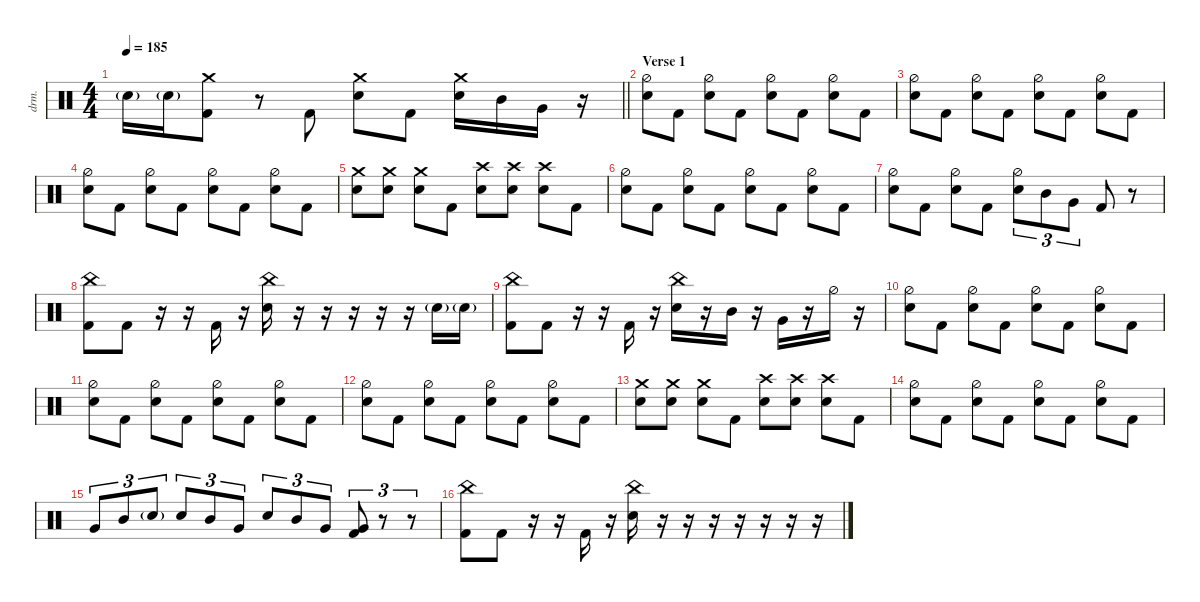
\defaultSystemsLayout 4
\hideDynamics
\bracketExtendMode nobrackets
\track ("Drums - Šimon" "drm.") {instrument percussion}
\staff {score}
\articulation defaults
\ts (4 4)
\tempo 185
\clef neutral
\barLineRight lightlight
\ks c "Snare (hit) 2"{g}.16{dy ff beam Down} "Snare (hit) 2"{g}.16{beam Down}
("Kick (hit) 2" "Crash medium (hit)").8{beam Down} r.8{beam Down} "Kick (hit) 2".8{beam Up} ("Snare (hit) 2" "Crash medium (hit)").8{beam Down} "Kick (hit) 2".8{beam Down} ("Snare (hit) 2" "Crash medium (hit)").16{beam Down} "Mid Tom (hit)".16{beam Down} "Very Low Tom (hit)".16{beam Down} r.16{beam Down} |
\section ("" "Verse 1")
("Snare (hit) 2" "Hi-Hat (half)").8{beam Down} "Kick (hit) 2".8{beam Down} ("Snare (hit) 2" "Hi-Hat (half)").8{beam Down} "Kick (hit) 2".8{beam Down} ("Snare (hit) 2" "Hi-Hat (half)").8{beam Down} "Kick (hit) 2".8{beam Down} ("Snare (hit) 2" "Hi-Hat (half)").8{beam Down} "Kick (hit) 2".8{beam Down} |
("Snare (hit) 2" "Hi-Hat (half)").8{beam Down} "Kick (hit) 2".8{beam Down} ("Snare (hit) 2" "Hi-Hat (half)").8{beam Down} "Kick (hit) 2".8{beam Down} ("Snare (hit) 2" "Hi-Hat (half)").8{beam Down} "Kick (hit) 2".8{beam Down} ("Snare (hit) 2" "Hi-Hat (half)").8{beam Down} "Kick (hit) 2".8{beam Down} |
("Snare (hit) 2" "Hi-Hat (half)").8{beam Down} "Kick (hit) 2".8{beam Down} ("Snare (hit) 2" "Hi-Hat (half)").8{beam Down} "Kick (hit) 2".8{beam Down} ("Snare (hit) 2" "Hi-Hat (half)").8{beam Down} "Kick (hit) 2".8{beam Down} ("Snare (hit) 2" "Hi-Hat (half)").8{beam Down} "Kick (hit) 2".8{beam Down} |
("Snare (hit) 2" "Crash medium (hit)").8{beam Down} ("Snare (hit) 2" "Crash medium (hit)").8{beam Down} ("Snare (hit) 2" "Crash medium (hit)").8{beam Down} "Kick (hit) 2".8{beam Down} ("Snare (hit) 2" "Crash high (hit)").8{beam Down} ("Snare (hit) 2" "Crash high (hit)").8{beam Down} ("Snare (hit) 2" "Crash high (hit)").8{beam Down} "Kick (hit) 2".8{beam Down} |
("Snare (hit) 2" "Hi-Hat (half)").8{beam Down} "Kick (hit) 2".8{beam Down} ("Snare (hit) 2" "Hi-Hat (half)").8{beam Down} "Kick (hit) 2".8{beam Down} ("Snare (hit) 2" "Hi-Hat (half)").8{beam Down} "Kick (hit) 2".8{beam Down} ("Snare (hit) 2" "Hi-Hat (half)").8{beam Down} "Kick (hit) 2".8{beam Down} |
("Snare (hit) 2" "Hi-Hat (half)").8{beam Down} "Kick (hit) 2".8{beam Down} ("Snare (hit) 2" "Hi-Hat (half)").8{beam Down} "Kick (hit) 2".8{beam Down} ("Hi-Hat (half)" "Snare (hit) 2").8{tu (3 2) beam Down} "Mid Tom (hit)".8{tu (3 2) beam Down} "Very Low Tom (hit)".8{tu (3 2) beam Down} "Kick (hit) 2".8{beam Up} r.8{beam Down} |
("China (hit)" "Kick (hit) 2").8{beam Down} "Kick (hit) 2".8{beam Down} r.16{beam Down} r.16{beam Down} "Kick (hit) 2".16{beam Up} r.16{beam Down} ("Snare (hit) 2" "China (hit)").16{beam Down} r.16{beam Down} r.16{beam Down} r.16{beam Down} r.16{beam Down} r.16{beam Down} "Snare (hit) 2"{g}.16{beam Down} "Snare (hit) 2"{g}.16{beam Down} |
("China (hit)" "Kick (hit) 2").8{beam Down} "Kick (hit) 2".8{beam Down} r.16{beam Down} r.16{beam Down} "Kick (hit) 2".16{beam Up} r.16{beam Down} ("Snare (hit) 2" "China (hit)").16{beam Down} r.16{beam Down} "Mid Tom (hit)".16{beam Down} r.16{beam Down} "Very Low Tom (hit)".16{beam Down} r.16{beam Down} "Hi-Hat (half)".16{beam Down} r.16{beam Down} |
("Snare (hit) 2" "Hi-Hat (half)").8{beam Down} "Kick (hit) 2".8{beam Down} ("Snare (hit) 2" "Hi-Hat (half)").8{beam Down} "Kick (hit) 2".8{beam Down} ("Snare (hit) 2" "Hi-Hat (half)").8{beam Down} "Kick (hit) 2".8{beam Down} ("Snare (hit) 2" "Hi-Hat (half)").8{beam Down} "Kick (hit) 2".8{beam Down} |
("Snare (hit) 2" "Hi-Hat (half)").8{beam Down} "Kick (hit) 2".8{beam Down} ("Snare (hit) 2" "Hi-Hat (half)").8{beam Down} "Kick (hit) 2".8{beam Down} ("Snare (hit) 2" "Hi-Hat (half)").8{beam Down} "Kick (hit) 2".8{beam Down} ("Snare (hit) 2" "Hi-Hat (half)").8{beam Down} "Kick (hit) 2".8{beam Down} |
("Snare (hit) 2" "Hi-Hat (half)").8{beam Down} "Kick (hit) 2".8{beam Down} ("Snare (hit) 2" "Hi-Hat (half)").8{beam Down} "Kick (hit) 2".8{beam Down} ("Snare (hit) 2" "Hi-Hat (half)").8{beam Down} "Kick (hit) 2".8{beam Down} ("Snare (hit) 2" "Hi-Hat (half)").8{beam Down} "Kick (hit) 2".8{beam Down} |
("Snare (hit) 2" "Crash medium (hit)").8{beam Down} ("Snare (hit) 2" "Crash medium (hit)").8{beam Down} ("Snare (hit) 2" "Crash medium (hit)").8{beam Down} "Kick (hit) 2".8{beam Down} ("Snare (hit) 2" "Crash high (hit)").8{beam Down} ("Snare (hit) 2" "Crash high (hit)").8{beam Down} ("Snare (hit) 2" "Crash high (hit)").8{beam Down} "Kick (hit) 2".8{beam Down} |
("Snare (hit) 2" "Hi-Hat (half)").8{beam Down} "Kick (hit) 2".8{beam Down} ("Snare (hit) 2" "Hi-Hat (half)").8{beam Down} "Kick (hit) 2".8{beam Down} ("Snare (hit) 2" "Hi-Hat (half)").8{beam Down} "Kick (hit) 2".8{beam Down} ("Snare (hit) 2" "Hi-Hat (half)").8{beam Down} "Kick (hit) 2".8{beam Down} |
"Very Low Tom (hit)".8{tu (3 2) beam Up} "Mid Tom (hit)".8{tu (3 2) beam Up} "Snare (hit) 2"{g}.8{tu (3 2) beam Up} "Snare (hit) 2".8{tu (3 2) beam Up} "Mid Tom (hit)".8{tu (3 2) beam Up} "Very Low Tom (hit)".8{tu (3 2) beam Up} "Snare (hit) 2".8{tu (3 2) beam Up} "Mid Tom (hit)".8{tu (3 2) beam Up} "Very Low Tom (hit)".8{tu (3 2) beam Up} ("Kick (hit) 2" "Very Low Tom (hit)").8{tu (3 2) beam Up} r.8{tu (3 2) beam Down} r.8{tu (3 2) beam Down} |
("China (hit)" "Kick (hit) 2").8{beam Down} "Kick (hit) 2".8{beam Down} r.16{beam Down} r.16{beam Down} "Kick (hit) 2".16{beam Up} r.16{beam Down} ("Snare (hit) 2" "China (hit)").16{beam Down} r.16{beam Down} r.16{beam Down} r.16{beam Down} r.16{beam Down} r.16{beam Down} r.16{beam Down} r.16{beam Down}
